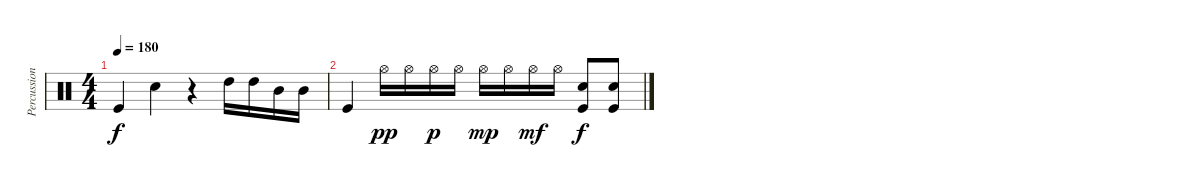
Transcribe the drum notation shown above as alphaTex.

\track ("Percussion" "Percussion") {instrument percussion}
\staff {score}
\articulation defaults
\ts (4 4)
\tempo 180
\clef neutral
\ks c "Kick (hit)".4{dy f} "Snare (hit) 2".4
r.4 "High Tom (hit)".16 "High Tom (hit)".16 "Mid Tom (hit)".16 "Mid Tom (hit)".16 |
"Kick (hit)".4 "Hi-Hat (open)".16{dy pp} "Hi-Hat (open)".16 "Hi-Hat (open)".16{dy p} "Hi-Hat (open)".16 "Hi-Hat (open)".16{dy mp} "Hi-Hat (open)".16 "Hi-Hat (open)".16{dy mf} "Hi-Hat (open)".16 ("Snare (hit) 2" "Kick (hit)").8{dy f} ("Snare (hit) 2" "Kick (hit)").8
